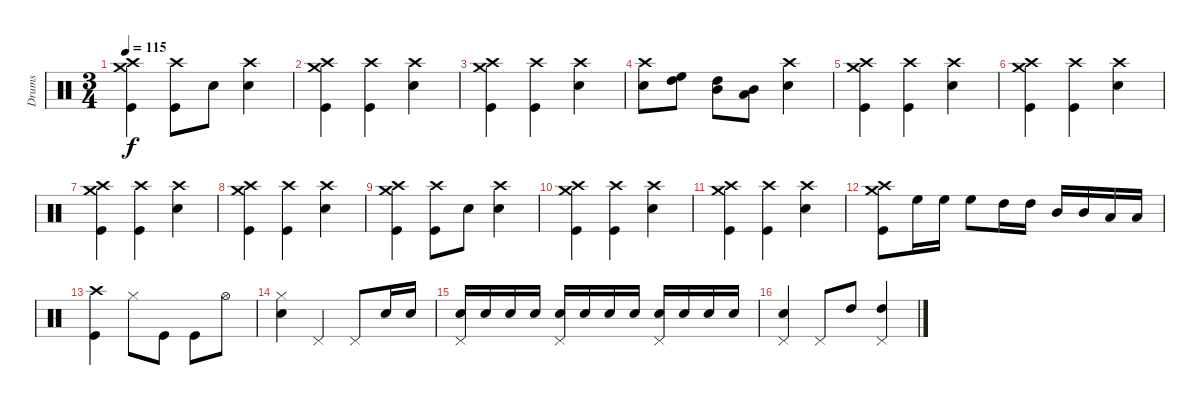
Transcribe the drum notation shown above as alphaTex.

\track ("Drums" "Drums") {instrument percussion}
\staff {score}
\articulation defaults
\ts (3 4)
\tempo 115
\clef neutral
\ks c
("Crash high (hit)" "Crash medium (hit)" "Kick (hit)").4{dy f} ("Crash high (hit)" "Kick (hit)").8 "Snare (hit) 2".8 ("Crash high (hit)" "Snare (hit) 2").4 |
("Crash high (hit)" "Crash medium (hit)" "Kick (hit)").4 ("Crash high (hit)" "Kick (hit)").4 ("Crash high (hit)" "Snare (hit) 2").4 |
("Crash high (hit)" "Crash medium (hit)" "Kick (hit)").4 ("Crash high (hit)" "Kick (hit)").4 ("Crash high (hit)" "Snare (hit) 2").4 |
("Crash high (hit)" "Snare (hit) 2").8 ("High Tom (hit)" "High Floor Tom (hit)").8 ("High Tom (hit)" "Mid Tom (hit)").8 ("Mid Tom (hit)" "Low Tom (hit)").8 ("Crash high (hit)" "Snare (hit) 2").4 |
("Crash high (hit)" "Crash medium (hit)" "Kick (hit)").4 ("Crash high (hit)" "Kick (hit)").4 ("Crash high (hit)" "Snare (hit) 2").4 |
("Crash high (hit)" "Crash medium (hit)" "Kick (hit)").4 ("Crash high (hit)" "Kick (hit)").4 ("Crash high (hit)" "Snare (hit) 2").4 |
("Crash high (hit)" "Crash medium (hit)" "Kick (hit)").4 ("Crash high (hit)" "Kick (hit)").4 ("Crash high (hit)" "Snare (hit) 2").4 |
("Crash high (hit)" "Crash medium (hit)" "Kick (hit)").4 ("Crash high (hit)" "Kick (hit)").4 ("Crash high (hit)" "Snare (hit) 2").4 |
("Crash high (hit)" "Crash medium (hit)" "Kick (hit)").4 ("Crash high (hit)" "Kick (hit)").8 "Snare (hit) 2".8 ("Crash high (hit)" "Snare (hit) 2").4 |
("Crash high (hit)" "Crash medium (hit)" "Kick (hit)").4 ("Crash high (hit)" "Kick (hit)").4 ("Crash high (hit)" "Snare (hit) 2").4 |
("Crash high (hit)" "Crash medium (hit)" "Kick (hit)").4 ("Crash high (hit)" "Kick (hit)").4 ("Crash high (hit)" "Snare (hit) 2").4 |
("Crash high (hit)" "Crash medium (hit)" "Kick (hit)").8 "High Floor Tom (hit)".16 "High Floor Tom (hit)".16 "High Floor Tom (hit)".8 "High Tom (hit)".16 "High Tom (hit)".16 "Mid Tom (hit)".16 "Mid Tom (hit)".16 "Low Tom (hit)".16 "Low Tom (hit)".16 |
("Crash high (hit)" "Kick (hit)").4 "Hi-Hat (closed)".8 "Kick (hit)".8 "Kick (hit)".8 "Hi-Hat (open)".8 |
("Hi-Hat (closed)" "Snare (hit) 2").4 "Pedal Hi-Hat (hit)".4 "Pedal Hi-Hat (hit)".8 "Snare (hit) 2".16 "Snare (hit) 2".16 |
("Pedal Hi-Hat (hit)" "Snare (hit) 2").16 "Snare (hit) 2".16 "Snare (hit) 2".16 "Snare (hit) 2".16 ("Pedal Hi-Hat (hit)" "Snare (hit) 2").16 "Snare (hit) 2".16 "Snare (hit) 2".16 "Snare (hit) 2".16 ("Pedal Hi-Hat (hit)" "Snare (hit) 2").16 "Snare (hit) 2".16 "Snare (hit) 2".16 "Snare (hit) 2".16 |
("Pedal Hi-Hat (hit)" "Snare (hit) 2").4 "Pedal Hi-Hat (hit)".8 "High Tom (hit)".8 ("Pedal Hi-Hat (hit)" "High Tom (hit)").4
